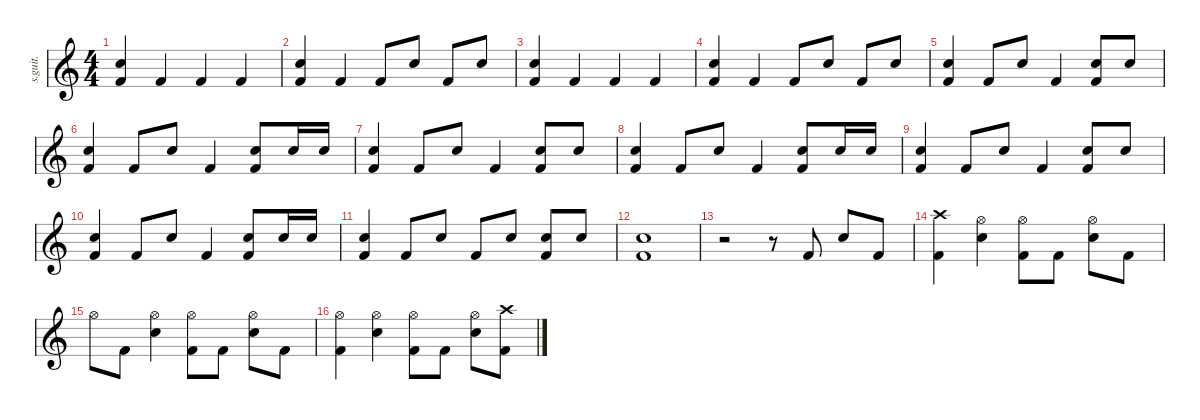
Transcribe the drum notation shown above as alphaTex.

\defaultSystemsLayout 4
\hideDynamics
\bracketExtendMode nobrackets
\track ("" "s.guit.") {instrument percussion}
\staff {score}
\articulation defaults
\ts (4 4)
\tempo (184 hide)
\clef g2
\ks c
("Snare (hit) 2" "Kick (hit) 2").4{dy f} "Kick (hit) 2".4 "Kick (hit) 2".4 "Kick (hit) 2".4 |
("Snare (hit) 2" "Kick (hit) 2").4 "Kick (hit) 2".4 "Kick (hit) 2".8 "Snare (hit) 2".8 "Kick (hit) 2".8 "Snare (hit) 2".8 |
("Snare (hit) 2" "Kick (hit) 2").4 "Kick (hit) 2".4 "Kick (hit) 2".4 "Kick (hit) 2".4 |
("Snare (hit) 2" "Kick (hit) 2").4 "Kick (hit) 2".4 "Kick (hit) 2".8 "Snare (hit) 2".8 "Kick (hit) 2".8 "Snare (hit) 2".8 |
("Snare (hit) 2" "Kick (hit) 2").4 "Kick (hit) 2".8 "Snare (hit) 2".8 "Kick (hit) 2".4 ("Snare (hit) 2" "Kick (hit) 2").8 "Snare (hit) 2".8 |
("Snare (hit) 2" "Kick (hit) 2").4 "Kick (hit) 2".8 "Snare (hit) 2".8 "Kick (hit) 2".4 ("Snare (hit) 2" "Kick (hit) 2").8 "Snare (hit) 2".16 "Snare (hit) 2".16 |
("Snare (hit) 2" "Kick (hit) 2").4 "Kick (hit) 2".8 "Snare (hit) 2".8 "Kick (hit) 2".4 ("Snare (hit) 2" "Kick (hit) 2").8 "Snare (hit) 2".8 |
("Snare (hit) 2" "Kick (hit) 2").4 "Kick (hit) 2".8 "Snare (hit) 2".8 "Kick (hit) 2".4 ("Snare (hit) 2" "Kick (hit) 2").8 "Snare (hit) 2".16 "Snare (hit) 2".16 |
("Snare (hit) 2" "Kick (hit) 2").4 "Kick (hit) 2".8 "Snare (hit) 2".8 "Kick (hit) 2".4 ("Snare (hit) 2" "Kick (hit) 2").8 "Snare (hit) 2".8 |
("Snare (hit) 2" "Kick (hit) 2").4 "Kick (hit) 2".8 "Snare (hit) 2".8 "Kick (hit) 2".4 ("Snare (hit) 2" "Kick (hit) 2").8 "Snare (hit) 2".16 "Snare (hit) 2".16 |
("Snare (hit) 2" "Kick (hit) 2").4 "Kick (hit) 2".8 "Snare (hit) 2".8 "Kick (hit) 2".8 "Snare (hit) 2".8 ("Snare (hit) 2" "Kick (hit) 2").8 "Snare (hit) 2".8 |
("Snare (hit) 2" "Kick (hit) 2").1 |
r.2 r.8 "Kick (hit) 2".8 "Snare (hit) 2".8 "Kick (hit) 2".8 |
("Crash high (hit)" "Kick (hit) 2").4 ("Hi-Hat (open)" "Snare (hit) 2").4 ("Hi-Hat (open)" "Kick (hit) 2").8 "Kick (hit) 2".8 ("Hi-Hat (open)" "Snare (hit) 2").8 "Kick (hit) 2".8 |
"Hi-Hat (open)".8 "Kick (hit) 2".8 ("Hi-Hat (open)" "Snare (hit) 2").4 ("Hi-Hat (open)" "Kick (hit) 2").8 "Kick (hit) 2".8 ("Hi-Hat (open)" "Snare (hit) 2").8 "Kick (hit) 2".8 |
("Hi-Hat (open)" "Kick (hit) 2").4 ("Hi-Hat (open)" "Snare (hit) 2").4 ("Hi-Hat (open)" "Kick (hit) 2").8 "Kick (hit) 2".8 ("Hi-Hat (open)" "Snare (hit) 2").8 ("Crash high (hit)" "Kick (hit) 2").8
